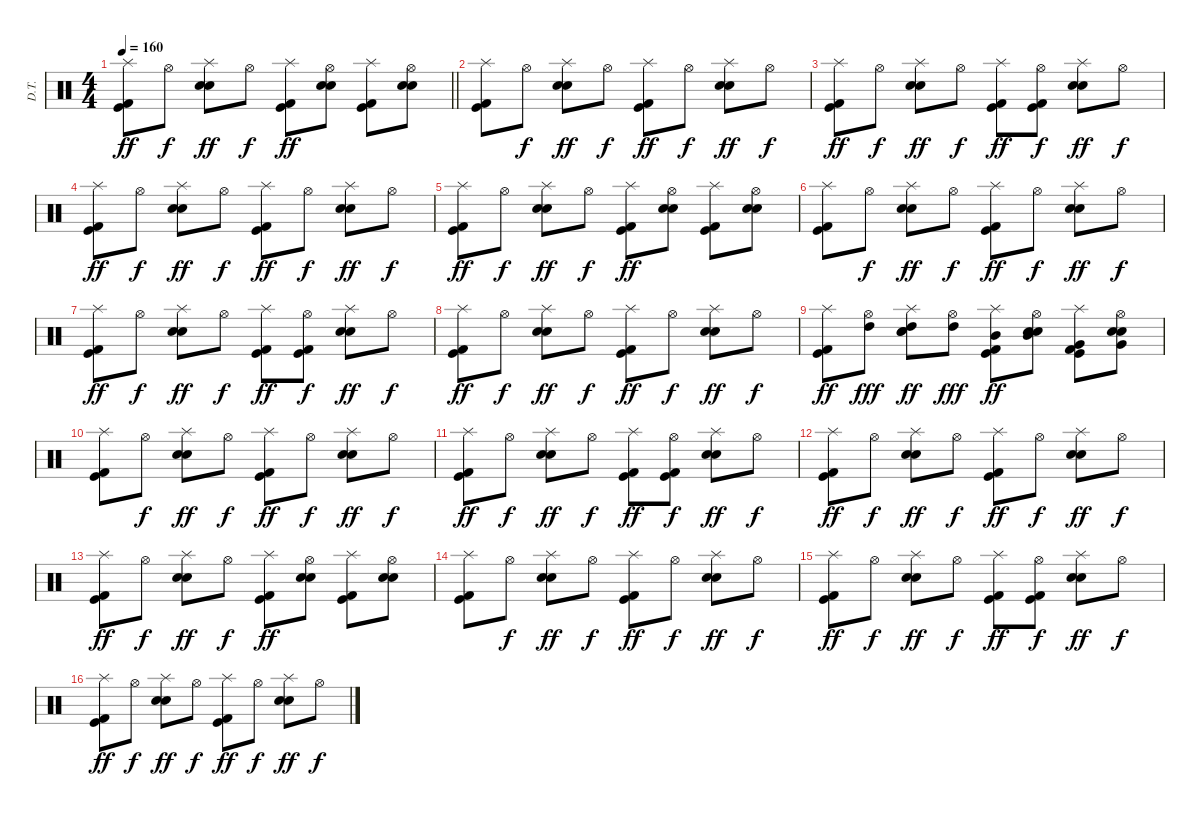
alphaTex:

\track ("D.T." "D.T.") {instrument percussion}
\staff {score}
\articulation defaults
\ts (4 4)
\tempo 160
\clef neutral
\barLineRight lightlight
\ks c
("Splash (hit)" "Kick (hit)" "Kick (hit) 2").8{dy ff} "Hi-Hat (open)".8{dy f} ("Splash (hit)" "Snare (hit) 2" "Electric Snare (hit)").8{dy ff} "Hi-Hat (open)".8{dy f} ("Splash (hit)" "Kick (hit)" "Kick (hit) 2").8{dy ff} ("Hi-Hat (open)" "Snare (hit) 2" "Electric Snare (hit)").8 ("Splash (hit)" "Kick (hit)" "Kick (hit) 2").8 ("Hi-Hat (open)" "Snare (hit) 2" "Electric Snare (hit)").8 |
("Splash (hit)" "Kick (hit)" "Kick (hit) 2").8 "Hi-Hat (open)".8{dy f} ("Splash (hit)" "Snare (hit) 2" "Electric Snare (hit)").8{dy ff} "Hi-Hat (open)".8{dy f} ("Splash (hit)" "Kick (hit)" "Kick (hit) 2").8{dy ff} "Hi-Hat (open)".8{dy f} ("Splash (hit)" "Snare (hit) 2" "Electric Snare (hit)").8{dy ff} "Hi-Hat (open)".8{dy f} |
("Splash (hit)" "Kick (hit)" "Kick (hit) 2").8{dy ff} "Hi-Hat (open)".8{dy f} ("Splash (hit)" "Snare (hit) 2" "Electric Snare (hit)").8{dy ff} "Hi-Hat (open)".8{dy f} ("Splash (hit)" "Kick (hit)" "Kick (hit) 2").8{dy ff} ("Hi-Hat (open)" "Kick (hit)" "Kick (hit) 2").8{dy f} ("Splash (hit)" "Snare (hit) 2" "Electric Snare (hit)").8{dy ff} "Hi-Hat (open)".8{dy f} |
("Splash (hit)" "Kick (hit)" "Kick (hit) 2").8{dy ff} "Hi-Hat (open)".8{dy f} ("Splash (hit)" "Snare (hit) 2" "Electric Snare (hit)").8{dy ff} "Hi-Hat (open)".8{dy f} ("Splash (hit)" "Kick (hit)" "Kick (hit) 2").8{dy ff} "Hi-Hat (open)".8{dy f} ("Splash (hit)" "Snare (hit) 2" "Electric Snare (hit)").8{dy ff} "Hi-Hat (open)".8{dy f} |
("Splash (hit)" "Kick (hit)" "Kick (hit) 2").8{dy ff} "Hi-Hat (open)".8{dy f} ("Splash (hit)" "Snare (hit) 2" "Electric Snare (hit)").8{dy ff} "Hi-Hat (open)".8{dy f} ("Splash (hit)" "Kick (hit)" "Kick (hit) 2").8{dy ff} ("Hi-Hat (open)" "Snare (hit) 2" "Electric Snare (hit)").8 ("Splash (hit)" "Kick (hit)" "Kick (hit) 2").8 ("Hi-Hat (open)" "Snare (hit) 2" "Electric Snare (hit)").8 |
("Splash (hit)" "Kick (hit)" "Kick (hit) 2").8 "Hi-Hat (open)".8{dy f} ("Splash (hit)" "Snare (hit) 2" "Electric Snare (hit)").8{dy ff} "Hi-Hat (open)".8{dy f} ("Splash (hit)" "Kick (hit)" "Kick (hit) 2").8{dy ff} "Hi-Hat (open)".8{dy f} ("Splash (hit)" "Snare (hit) 2" "Electric Snare (hit)").8{dy ff} "Hi-Hat (open)".8{dy f} |
("Splash (hit)" "Kick (hit)" "Kick (hit) 2").8{dy ff} "Hi-Hat (open)".8{dy f} ("Splash (hit)" "Snare (hit) 2" "Electric Snare (hit)").8{dy ff} "Hi-Hat (open)".8{dy f} ("Splash (hit)" "Kick (hit)" "Kick (hit) 2").8{dy ff} ("Hi-Hat (open)" "Kick (hit)" "Kick (hit) 2").8{dy f} ("Splash (hit)" "Snare (hit) 2" "Electric Snare (hit)").8{dy ff} "Hi-Hat (open)".8{dy f} |
("Splash (hit)" "Kick (hit)" "Kick (hit) 2").8{dy ff} "Hi-Hat (open)".8{dy f} ("Splash (hit)" "Snare (hit) 2" "Electric Snare (hit)").8{dy ff} "Hi-Hat (open)".8{dy f} ("Splash (hit)" "Kick (hit)" "Kick (hit) 2").8{dy ff} "Hi-Hat (open)".8{dy f} ("Splash (hit)" "Snare (hit) 2" "Electric Snare (hit)").8{dy ff} "Hi-Hat (open)".8{dy f} |
("Splash (hit)" "Kick (hit)" "Kick (hit) 2").8{dy ff} ("Hi-Hat (open)" "High Tom (hit)").8{dy fff} ("Splash (hit)" "High Tom (hit)" "Snare (hit) 2" "Electric Snare (hit)").8{dy ff} ("Hi-Hat (open)" "High Tom (hit)").8{dy fff} ("Splash (hit)" "Mid Tom (hit)" "Kick (hit)" "Kick (hit) 2").8{dy ff} ("Hi-Hat (open)" "Mid Tom (hit)" "Snare (hit) 2" "Electric Snare (hit)").8 ("Splash (hit)" "Very Low Tom (hit)" "Kick (hit)" "Kick (hit) 2").8 ("Hi-Hat (open)" "Very Low Tom (hit)" "Snare (hit) 2" "Electric Snare (hit)").8 |
("Splash (hit)" "Kick (hit)" "Kick (hit) 2").8 "Hi-Hat (open)".8{dy f} ("Splash (hit)" "Snare (hit) 2" "Electric Snare (hit)").8{dy ff} "Hi-Hat (open)".8{dy f} ("Splash (hit)" "Kick (hit)" "Kick (hit) 2").8{dy ff} "Hi-Hat (open)".8{dy f} ("Splash (hit)" "Snare (hit) 2" "Electric Snare (hit)").8{dy ff} "Hi-Hat (open)".8{dy f} |
("Splash (hit)" "Kick (hit)" "Kick (hit) 2").8{dy ff} "Hi-Hat (open)".8{dy f} ("Splash (hit)" "Snare (hit) 2" "Electric Snare (hit)").8{dy ff} "Hi-Hat (open)".8{dy f} ("Splash (hit)" "Kick (hit)" "Kick (hit) 2").8{dy ff} ("Hi-Hat (open)" "Kick (hit)" "Kick (hit) 2").8{dy f} ("Splash (hit)" "Snare (hit) 2" "Electric Snare (hit)").8{dy ff} "Hi-Hat (open)".8{dy f} |
("Splash (hit)" "Kick (hit)" "Kick (hit) 2").8{dy ff} "Hi-Hat (open)".8{dy f} ("Splash (hit)" "Snare (hit) 2" "Electric Snare (hit)").8{dy ff} "Hi-Hat (open)".8{dy f} ("Splash (hit)" "Kick (hit)" "Kick (hit) 2").8{dy ff} "Hi-Hat (open)".8{dy f} ("Splash (hit)" "Snare (hit) 2" "Electric Snare (hit)").8{dy ff} "Hi-Hat (open)".8{dy f} |
("Splash (hit)" "Kick (hit)" "Kick (hit) 2").8{dy ff} "Hi-Hat (open)".8{dy f} ("Splash (hit)" "Snare (hit) 2" "Electric Snare (hit)").8{dy ff} "Hi-Hat (open)".8{dy f} ("Splash (hit)" "Kick (hit)" "Kick (hit) 2").8{dy ff} ("Hi-Hat (open)" "Snare (hit) 2" "Electric Snare (hit)").8 ("Splash (hit)" "Kick (hit)" "Kick (hit) 2").8 ("Hi-Hat (open)" "Snare (hit) 2" "Electric Snare (hit)").8 |
("Splash (hit)" "Kick (hit)" "Kick (hit) 2").8 "Hi-Hat (open)".8{dy f} ("Splash (hit)" "Snare (hit) 2" "Electric Snare (hit)").8{dy ff} "Hi-Hat (open)".8{dy f} ("Splash (hit)" "Kick (hit)" "Kick (hit) 2").8{dy ff} "Hi-Hat (open)".8{dy f} ("Splash (hit)" "Snare (hit) 2" "Electric Snare (hit)").8{dy ff} "Hi-Hat (open)".8{dy f} |
("Splash (hit)" "Kick (hit)" "Kick (hit) 2").8{dy ff} "Hi-Hat (open)".8{dy f} ("Splash (hit)" "Snare (hit) 2" "Electric Snare (hit)").8{dy ff} "Hi-Hat (open)".8{dy f} ("Splash (hit)" "Kick (hit)" "Kick (hit) 2").8{dy ff} ("Hi-Hat (open)" "Kick (hit)" "Kick (hit) 2").8{dy f} ("Splash (hit)" "Snare (hit) 2" "Electric Snare (hit)").8{dy ff} "Hi-Hat (open)".8{dy f} |
("Splash (hit)" "Kick (hit)" "Kick (hit) 2").8{dy ff} "Hi-Hat (open)".8{dy f} ("Splash (hit)" "Snare (hit) 2" "Electric Snare (hit)").8{dy ff} "Hi-Hat (open)".8{dy f} ("Splash (hit)" "Kick (hit)" "Kick (hit) 2").8{dy ff} "Hi-Hat (open)".8{dy f} ("Splash (hit)" "Snare (hit) 2" "Electric Snare (hit)").8{dy ff} "Hi-Hat (open)".8{dy f}
